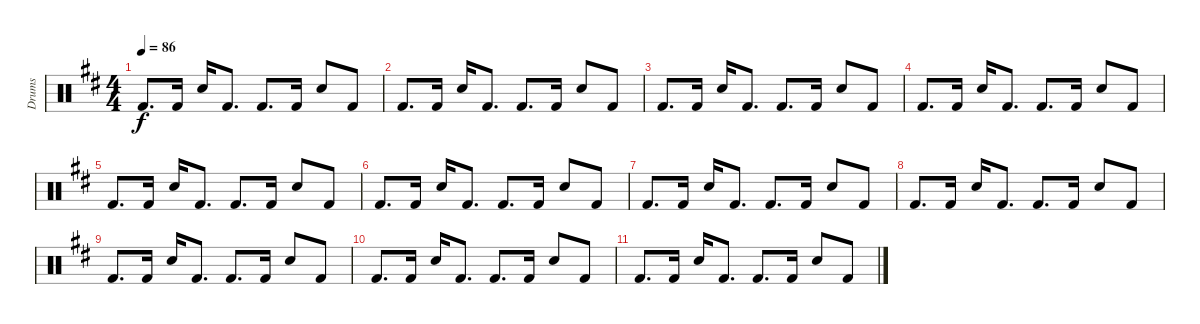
\track ("Drums" "Drums") {instrument percussion}
\staff {score}
\articulation defaults
\ts (4 4)
\tempo 86
\clef neutral
\ks d "Kick (hit) 2".8{d dy f} "Kick (hit) 2".16 "Electric Snare (hit)".16 "Kick (hit) 2".8{d} "Kick (hit) 2".8{d} "Kick (hit) 2".16 "Electric Snare (hit)".8 "Kick (hit) 2".8
|
"Kick (hit) 2".8{d} "Kick (hit) 2".16 "Electric Snare (hit)".16 "Kick (hit) 2".8{d} "Kick (hit) 2".8{d} "Kick (hit) 2".16 "Electric Snare (hit)".8 "Kick (hit) 2".8 |
"Kick (hit) 2".8{d} "Kick (hit) 2".16 "Electric Snare (hit)".16 "Kick (hit) 2".8{d} "Kick (hit) 2".8{d} "Kick (hit) 2".16 "Electric Snare (hit)".8 "Kick (hit) 2".8 |
"Kick (hit) 2".8{d} "Kick (hit) 2".16 "Electric Snare (hit)".16 "Kick (hit) 2".8{d} "Kick (hit) 2".8{d} "Kick (hit) 2".16 "Electric Snare (hit)".8 "Kick (hit) 2".8 |
"Kick (hit) 2".8{d} "Kick (hit) 2".16 "Electric Snare (hit)".16 "Kick (hit) 2".8{d} "Kick (hit) 2".8{d} "Kick (hit) 2".16 "Electric Snare (hit)".8 "Kick (hit) 2".8 |
"Kick (hit) 2".8{d} "Kick (hit) 2".16 "Electric Snare (hit)".16 "Kick (hit) 2".8{d} "Kick (hit) 2".8{d} "Kick (hit) 2".16 "Electric Snare (hit)".8 "Kick (hit) 2".8 |
"Kick (hit) 2".8{d} "Kick (hit) 2".16 "Electric Snare (hit)".16 "Kick (hit) 2".8{d} "Kick (hit) 2".8{d} "Kick (hit) 2".16 "Electric Snare (hit)".8 "Kick (hit) 2".8 |
"Kick (hit) 2".8{d} "Kick (hit) 2".16 "Electric Snare (hit)".16 "Kick (hit) 2".8{d} "Kick (hit) 2".8{d} "Kick (hit) 2".16 "Electric Snare (hit)".8 "Kick (hit) 2".8 |
"Kick (hit) 2".8{d} "Kick (hit) 2".16 "Electric Snare (hit)".16 "Kick (hit) 2".8{d} "Kick (hit) 2".8{d} "Kick (hit) 2".16 "Electric Snare (hit)".8 "Kick (hit) 2".8 |
"Kick (hit) 2".8{d} "Kick (hit) 2".16 "Electric Snare (hit)".16 "Kick (hit) 2".8{d} "Kick (hit) 2".8{d} "Kick (hit) 2".16 "Electric Snare (hit)".8 "Kick (hit) 2".8 |
"Kick (hit) 2".8{d} "Kick (hit) 2".16 "Electric Snare (hit)".16 "Kick (hit) 2".8{d} "Kick (hit) 2".8{d} "Kick (hit) 2".16 "Electric Snare (hit)".8 "Kick (hit) 2".8
